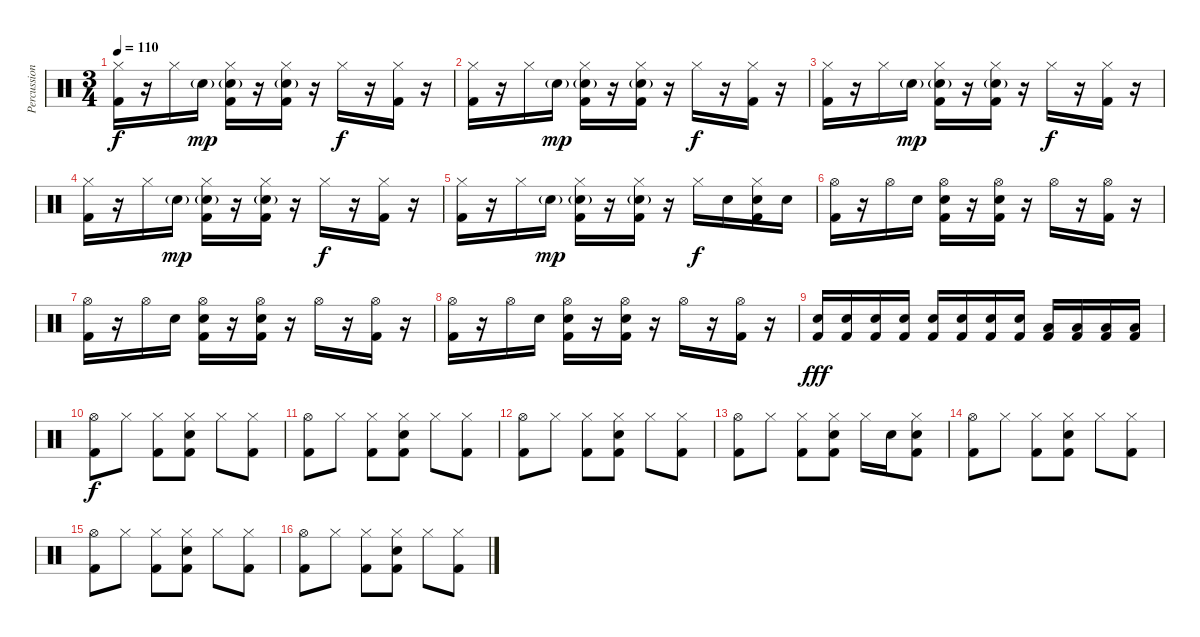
\track ("Percussion" "Percussion") {instrument percussion}
\staff {score}
\articulation defaults
\ts (3 4)
\tempo 110
\clef neutral
\ks c
("Hi-Hat (closed)" "Kick (hit) 2").16{dy f} r.16 "Hi-Hat (closed)".16 "Electric Snare (hit)"{g}.16{dy mp} ("Hi-Hat (closed)" "Electric Snare (hit)"{g} "Kick (hit) 2").16 r.16 ("Hi-Hat (closed)" "Electric Snare (hit)"{g} "Kick (hit) 2").16 r.16 "Hi-Hat (closed)".16{dy f} r.16 ("Hi-Hat (closed)" "Kick (hit) 2").16 r.16 |
("Hi-Hat (closed)" "Kick (hit) 2").16 r.16 "Hi-Hat (closed)".16 "Electric Snare (hit)"{g}.16{dy mp} ("Hi-Hat (closed)" "Electric Snare (hit)"{g} "Kick (hit) 2").16 r.16 ("Hi-Hat (closed)" "Electric Snare (hit)"{g} "Kick (hit) 2").16 r.16 "Hi-Hat (closed)".16{dy f} r.16 ("Hi-Hat (closed)" "Kick (hit) 2").16 r.16 |
("Hi-Hat (closed)" "Kick (hit) 2").16 r.16 "Hi-Hat (closed)".16 "Electric Snare (hit)"{g}.16{dy mp} ("Hi-Hat (closed)" "Electric Snare (hit)"{g} "Kick (hit) 2").16 r.16 ("Hi-Hat (closed)" "Electric Snare (hit)"{g} "Kick (hit) 2").16 r.16 "Hi-Hat (closed)".16{dy f} r.16 ("Hi-Hat (closed)" "Kick (hit) 2").16 r.16 |
("Hi-Hat (closed)" "Kick (hit) 2").16 r.16 "Hi-Hat (closed)".16 "Electric Snare (hit)"{g}.16{dy mp} ("Hi-Hat (closed)" "Electric Snare (hit)"{g} "Kick (hit) 2").16 r.16 ("Hi-Hat (closed)" "Electric Snare (hit)"{g} "Kick (hit) 2").16 r.16 "Hi-Hat (closed)".16{dy f} r.16 ("Hi-Hat (closed)" "Kick (hit) 2").16 r.16 |
("Hi-Hat (closed)" "Kick (hit) 2").16 r.16 "Hi-Hat (closed)".16 "Electric Snare (hit)"{g}.16{dy mp} ("Hi-Hat (closed)" "Electric Snare (hit)"{g} "Kick (hit) 2").16 r.16 ("Hi-Hat (closed)" "Electric Snare (hit)"{g} "Kick (hit) 2").16 r.16 "Hi-Hat (closed)".16{dy f} "Electric Snare (hit)".16 ("Hi-Hat (closed)" "Electric Snare (hit)" "Kick (hit) 2").16 "Electric Snare (hit)".16 |
("Hi-Hat (open)" "Kick (hit) 2").16 r.16 "Hi-Hat (open)".16 "Electric Snare (hit)".16 ("Hi-Hat (open)" "Electric Snare (hit)" "Kick (hit) 2").16 r.16 ("Hi-Hat (open)" "Electric Snare (hit)" "Kick (hit) 2").16 r.16 "Hi-Hat (open)".16 r.16 ("Hi-Hat (open)" "Kick (hit) 2").16 r.16 |
("Hi-Hat (open)" "Kick (hit) 2").16 r.16 "Hi-Hat (open)".16 "Electric Snare (hit)".16 ("Hi-Hat (open)" "Electric Snare (hit)" "Kick (hit) 2").16 r.16 ("Hi-Hat (open)" "Electric Snare (hit)" "Kick (hit) 2").16 r.16 "Hi-Hat (open)".16 r.16 ("Hi-Hat (open)" "Kick (hit) 2").16 r.16 |
("Hi-Hat (open)" "Kick (hit) 2").16 r.16 "Hi-Hat (open)".16 "Electric Snare (hit)".16 ("Hi-Hat (open)" "Electric Snare (hit)" "Kick (hit) 2").16 r.16 ("Hi-Hat (open)" "Electric Snare (hit)" "Kick (hit) 2").16 r.16 "Hi-Hat (open)".16 r.16 ("Hi-Hat (open)" "Kick (hit) 2").16 r.16 |
("Electric Snare (hit)" "Kick (hit) 2").16{dy fff} ("Electric Snare (hit)" "Kick (hit) 2").16 ("Electric Snare (hit)" "Kick (hit) 2").16 ("Electric Snare (hit)" "Kick (hit) 2").16 ("Electric Snare (hit)" "Kick (hit) 2").16 ("Electric Snare (hit)" "Kick (hit) 2").16 ("Electric Snare (hit)" "Kick (hit) 2").16 ("Electric Snare (hit)" "Kick (hit) 2").16 ("Low Tom (hit)" "Kick (hit) 2").16 ("Low Tom (hit)" "Kick (hit) 2").16 ("Low Tom (hit)" "Kick (hit) 2").16 ("Low Tom (hit)" "Kick (hit) 2").16 |
("Hi-Hat (open)" "Kick (hit) 2").8{dy f} "Hi-Hat (closed)".8 ("Hi-Hat (closed)" "Kick (hit) 2").8 ("Hi-Hat (closed)" "Electric Snare (hit)" "Kick (hit) 2").8 "Hi-Hat (closed)".8 ("Hi-Hat (closed)" "Kick (hit) 2").8 |
("Hi-Hat (open)" "Kick (hit) 2").8 "Hi-Hat (closed)".8 ("Hi-Hat (closed)" "Kick (hit) 2").8 ("Hi-Hat (closed)" "Electric Snare (hit)" "Kick (hit) 2").8 "Hi-Hat (closed)".8 ("Hi-Hat (closed)" "Kick (hit) 2").8 |
("Hi-Hat (open)" "Kick (hit) 2").8 "Hi-Hat (closed)".8 ("Hi-Hat (closed)" "Kick (hit) 2").8 ("Hi-Hat (closed)" "Electric Snare (hit)" "Kick (hit) 2").8 "Hi-Hat (closed)".8 ("Hi-Hat (closed)" "Kick (hit) 2").8 |
("Hi-Hat (open)" "Kick (hit) 2").8 "Hi-Hat (closed)".8 ("Hi-Hat (closed)" "Kick (hit) 2").8 ("Hi-Hat (closed)" "Electric Snare (hit)" "Kick (hit) 2").8 "Hi-Hat (closed)".16 "Electric Snare (hit)".16 ("Hi-Hat (closed)" "Electric Snare (hit)" "Kick (hit) 2").8 |
("Hi-Hat (open)" "Kick (hit) 2").8 "Hi-Hat (closed)".8 ("Hi-Hat (closed)" "Kick (hit) 2").8 ("Hi-Hat (closed)" "Electric Snare (hit)" "Kick (hit) 2").8 "Hi-Hat (closed)".8 ("Hi-Hat (closed)" "Kick (hit) 2").8 |
("Hi-Hat (open)" "Kick (hit) 2").8 "Hi-Hat (closed)".8 ("Hi-Hat (closed)" "Kick (hit) 2").8 ("Hi-Hat (closed)" "Electric Snare (hit)" "Kick (hit) 2").8 "Hi-Hat (closed)".8 ("Hi-Hat (closed)" "Kick (hit) 2").8 |
("Hi-Hat (open)" "Kick (hit) 2").8 "Hi-Hat (closed)".8 ("Hi-Hat (closed)" "Kick (hit) 2").8 ("Hi-Hat (closed)" "Electric Snare (hit)" "Kick (hit) 2").8 "Hi-Hat (closed)".8 ("Hi-Hat (closed)" "Kick (hit) 2").8
